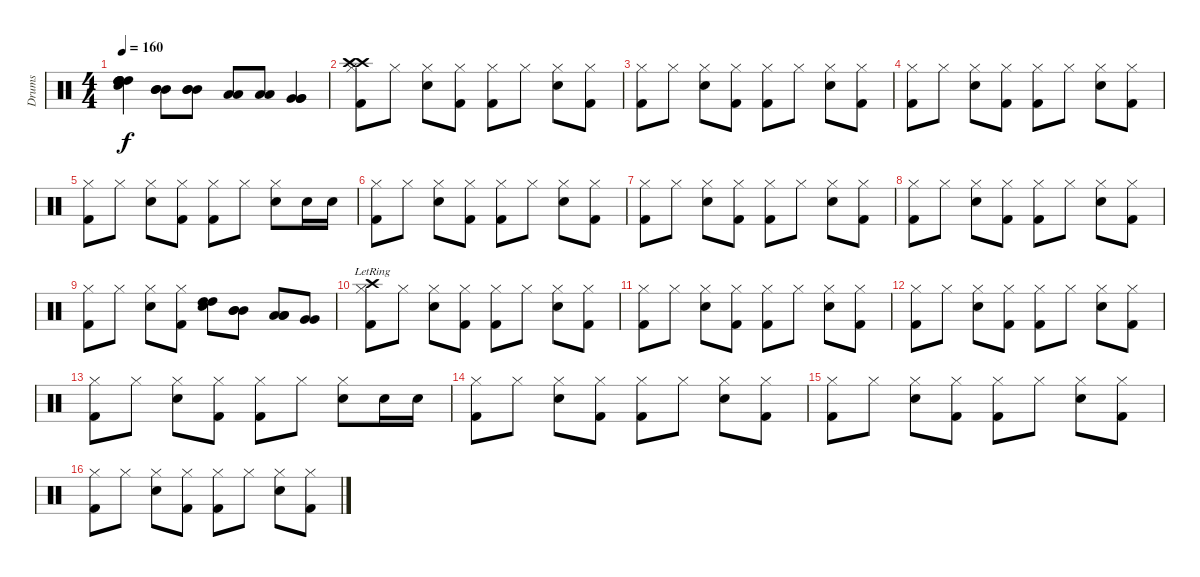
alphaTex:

\track ("Drums" "Drums") {instrument percussion}
\staff {score}
\articulation defaults
\ts (4 4)
\tempo 160
\clef neutral
\ks c
("High Tom (hit)" "High Tom (hit)" "Electric Snare (hit)" "High Tom (hit)" "High Tom (hit)").4{dy f} ("Mid Tom (hit)" "Mid Tom (hit)" "Mid Tom (hit)").8 ("Mid Tom (hit)" "Mid Tom (hit)" "Mid Tom (hit)").8 ("Low Tom (hit)" "Low Tom (hit)").8 ("Low Tom (hit)" "Low Tom (hit)").8 ("Very Low Tom (hit)" "Very Low Tom (hit)" "Very Low Tom (hit)").4 |
("Hi-Hat (closed)" "Crash high (hit)" "Kick (hit) 2" "Crash high (hit)").8 "Hi-Hat (closed)".8 ("Hi-Hat (closed)" "Electric Snare (hit)").8 ("Hi-Hat (closed)" "Kick (hit) 2").8 ("Hi-Hat (closed)" "Kick (hit) 2").8 "Hi-Hat (closed)".8 ("Hi-Hat (closed)" "Electric Snare (hit)").8 ("Hi-Hat (closed)" "Kick (hit) 2").8 |
("Hi-Hat (closed)" "Kick (hit) 2").8 "Hi-Hat (closed)".8 ("Hi-Hat (closed)" "Electric Snare (hit)").8 ("Hi-Hat (closed)" "Kick (hit) 2").8 ("Hi-Hat (closed)" "Kick (hit) 2").8 "Hi-Hat (closed)".8 ("Hi-Hat (closed)" "Electric Snare (hit)").8 ("Hi-Hat (closed)" "Kick (hit) 2").8 |
("Hi-Hat (closed)" "Kick (hit) 2").8 "Hi-Hat (closed)".8 ("Hi-Hat (closed)" "Electric Snare (hit)").8 ("Hi-Hat (closed)" "Kick (hit) 2").8 ("Hi-Hat (closed)" "Kick (hit) 2").8 "Hi-Hat (closed)".8 ("Hi-Hat (closed)" "Electric Snare (hit)").8 ("Hi-Hat (closed)" "Kick (hit) 2").8 |
("Hi-Hat (closed)" "Kick (hit) 2").8 "Hi-Hat (closed)".8 ("Hi-Hat (closed)" "Electric Snare (hit)").8 ("Hi-Hat (closed)" "Kick (hit) 2").8 ("Hi-Hat (closed)" "Kick (hit) 2").8 "Hi-Hat (closed)".8 ("Hi-Hat (closed)" "Electric Snare (hit)").8 "Electric Snare (hit)".16 "Electric Snare (hit)".16 |
("Hi-Hat (closed)" "Kick (hit) 2").8 "Hi-Hat (closed)".8 ("Hi-Hat (closed)" "Electric Snare (hit)").8 ("Hi-Hat (closed)" "Kick (hit) 2").8 ("Hi-Hat (closed)" "Kick (hit) 2").8 "Hi-Hat (closed)".8 ("Hi-Hat (closed)" "Electric Snare (hit)").8 ("Hi-Hat (closed)" "Kick (hit) 2").8 |
("Hi-Hat (closed)" "Kick (hit) 2").8 "Hi-Hat (closed)".8 ("Hi-Hat (closed)" "Electric Snare (hit)").8 ("Hi-Hat (closed)" "Kick (hit) 2").8 ("Hi-Hat (closed)" "Kick (hit) 2").8 "Hi-Hat (closed)".8 ("Hi-Hat (closed)" "Electric Snare (hit)").8 ("Hi-Hat (closed)" "Kick (hit) 2").8 |
("Hi-Hat (closed)" "Kick (hit) 2").8 "Hi-Hat (closed)".8 ("Hi-Hat (closed)" "Electric Snare (hit)").8 ("Hi-Hat (closed)" "Kick (hit) 2").8 ("Hi-Hat (closed)" "Kick (hit) 2").8 "Hi-Hat (closed)".8 ("Hi-Hat (closed)" "Electric Snare (hit)").8 ("Hi-Hat (closed)" "Kick (hit) 2").8 |
("Hi-Hat (closed)" "Kick (hit) 2").8 "Hi-Hat (closed)".8 ("Hi-Hat (closed)" "Electric Snare (hit)").8 ("Hi-Hat (closed)" "Kick (hit) 2").8 ("High Tom (hit)" "High Tom (hit)" "Electric Snare (hit)").8 ("Mid Tom (hit)" "Mid Tom (hit)" "Mid Tom (hit)").8 ("Low Tom (hit)" "Low Tom (hit)" "Low Tom (hit)").8 ("Very Low Tom (hit)" "Very Low Tom (hit)").8 |
("Hi-Hat (closed)" "Kick (hit) 2" "Crash high (hit)"{lr}).8 "Hi-Hat (closed)".8 ("Hi-Hat (closed)" "Electric Snare (hit)").8 ("Hi-Hat (closed)" "Kick (hit) 2").8 ("Hi-Hat (closed)" "Kick (hit) 2").8 "Hi-Hat (closed)".8 ("Hi-Hat (closed)" "Electric Snare (hit)").8 ("Hi-Hat (closed)" "Kick (hit) 2").8 |
("Hi-Hat (closed)" "Kick (hit) 2").8 "Hi-Hat (closed)".8 ("Hi-Hat (closed)" "Electric Snare (hit)").8 ("Hi-Hat (closed)" "Kick (hit) 2").8 ("Hi-Hat (closed)" "Kick (hit) 2").8 "Hi-Hat (closed)".8 ("Hi-Hat (closed)" "Electric Snare (hit)").8 ("Hi-Hat (closed)" "Kick (hit) 2").8 |
("Hi-Hat (closed)" "Kick (hit) 2").8 "Hi-Hat (closed)".8 ("Hi-Hat (closed)" "Electric Snare (hit)").8 ("Hi-Hat (closed)" "Kick (hit) 2").8 ("Hi-Hat (closed)" "Kick (hit) 2").8 "Hi-Hat (closed)".8 ("Hi-Hat (closed)" "Electric Snare (hit)").8 ("Hi-Hat (closed)" "Kick (hit) 2").8 |
("Hi-Hat (closed)" "Kick (hit) 2").8 "Hi-Hat (closed)".8 ("Hi-Hat (closed)" "Electric Snare (hit)").8 ("Hi-Hat (closed)" "Kick (hit) 2").8 ("Hi-Hat (closed)" "Kick (hit) 2").8 "Hi-Hat (closed)".8 ("Hi-Hat (closed)" "Electric Snare (hit)").8 "Electric Snare (hit)".16 "Electric Snare (hit)".16 |
("Hi-Hat (closed)" "Kick (hit) 2").8 "Hi-Hat (closed)".8 ("Hi-Hat (closed)" "Electric Snare (hit)").8 ("Hi-Hat (closed)" "Kick (hit) 2").8 ("Hi-Hat (closed)" "Kick (hit) 2").8 "Hi-Hat (closed)".8 ("Hi-Hat (closed)" "Electric Snare (hit)").8 ("Hi-Hat (closed)" "Kick (hit) 2").8 |
("Hi-Hat (closed)" "Kick (hit) 2").8 "Hi-Hat (closed)".8 ("Hi-Hat (closed)" "Electric Snare (hit)").8 ("Hi-Hat (closed)" "Kick (hit) 2").8 ("Hi-Hat (closed)" "Kick (hit) 2").8 "Hi-Hat (closed)".8 ("Hi-Hat (closed)" "Electric Snare (hit)").8 ("Hi-Hat (closed)" "Kick (hit) 2").8 |
("Hi-Hat (closed)" "Kick (hit) 2").8 "Hi-Hat (closed)".8 ("Hi-Hat (closed)" "Electric Snare (hit)").8 ("Hi-Hat (closed)" "Kick (hit) 2").8 ("Hi-Hat (closed)" "Kick (hit) 2").8 "Hi-Hat (closed)".8 ("Hi-Hat (closed)" "Electric Snare (hit)").8 ("Hi-Hat (closed)" "Kick (hit) 2").8
